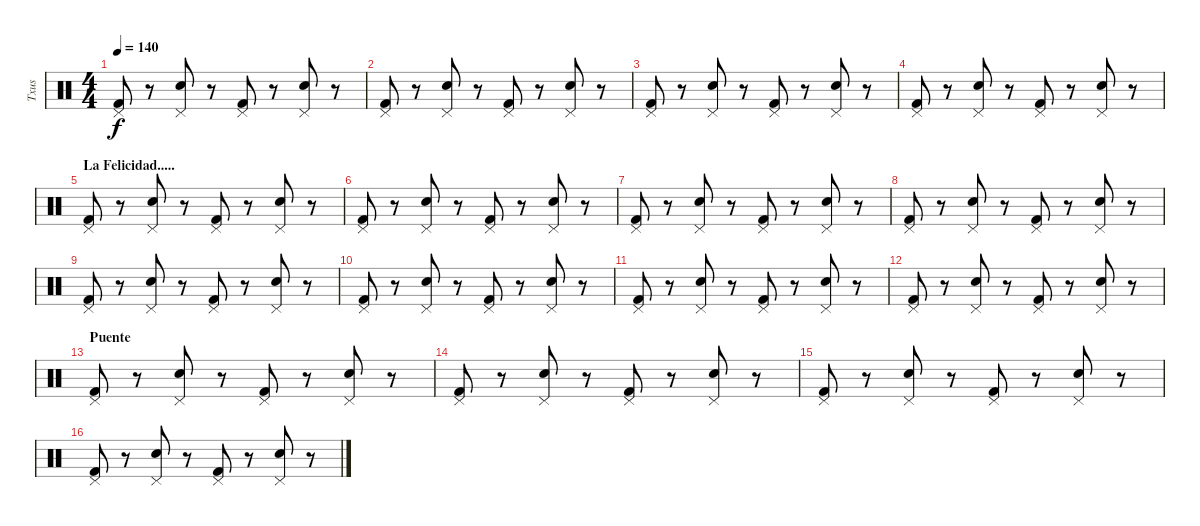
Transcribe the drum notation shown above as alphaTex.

\track ("Txus" "Txus") {instrument percussion}
\staff {score}
\articulation defaults
\ts (4 4)
\tempo 140
\clef neutral
\ks c
("Pedal Hi-Hat (hit)" "Kick (hit) 2").8{dy f} r.8 ("Pedal Hi-Hat (hit)" "Snare (hit) 2").8 r.8 ("Pedal Hi-Hat (hit)" "Kick (hit) 2").8 r.8 ("Pedal Hi-Hat (hit)" "Snare (hit) 2").8 r.8 |
("Pedal Hi-Hat (hit)" "Kick (hit) 2").8 r.8 ("Pedal Hi-Hat (hit)" "Snare (hit) 2").8 r.8 ("Pedal Hi-Hat (hit)" "Kick (hit) 2").8 r.8 ("Pedal Hi-Hat (hit)" "Snare (hit) 2").8 r.8 |
("Pedal Hi-Hat (hit)" "Kick (hit) 2").8 r.8 ("Pedal Hi-Hat (hit)" "Snare (hit) 2").8 r.8 ("Pedal Hi-Hat (hit)" "Kick (hit) 2").8 r.8 ("Pedal Hi-Hat (hit)" "Snare (hit) 2").8 r.8 |
("Pedal Hi-Hat (hit)" "Kick (hit) 2").8 r.8 ("Pedal Hi-Hat (hit)" "Snare (hit) 2").8 r.8 ("Pedal Hi-Hat (hit)" "Kick (hit) 2").8 r.8 ("Pedal Hi-Hat (hit)" "Snare (hit) 2").8 r.8 |
\section ("" "La Felicidad.....")
("Pedal Hi-Hat (hit)" "Kick (hit) 2").8 r.8 ("Pedal Hi-Hat (hit)" "Snare (hit) 2").8 r.8 ("Pedal Hi-Hat (hit)" "Kick (hit) 2").8 r.8 ("Pedal Hi-Hat (hit)" "Snare (hit) 2").8 r.8 |
("Pedal Hi-Hat (hit)" "Kick (hit) 2").8 r.8 ("Pedal Hi-Hat (hit)" "Snare (hit) 2").8 r.8 ("Pedal Hi-Hat (hit)" "Kick (hit) 2").8 r.8 ("Pedal Hi-Hat (hit)" "Snare (hit) 2").8 r.8 |
("Pedal Hi-Hat (hit)" "Kick (hit) 2").8 r.8 ("Pedal Hi-Hat (hit)" "Snare (hit) 2").8 r.8 ("Pedal Hi-Hat (hit)" "Kick (hit) 2").8 r.8 ("Pedal Hi-Hat (hit)" "Snare (hit) 2").8 r.8 |
("Pedal Hi-Hat (hit)" "Kick (hit) 2").8 r.8 ("Pedal Hi-Hat (hit)" "Snare (hit) 2").8 r.8 ("Pedal Hi-Hat (hit)" "Kick (hit) 2").8 r.8 ("Pedal Hi-Hat (hit)" "Snare (hit) 2").8 r.8 |
("Pedal Hi-Hat (hit)" "Kick (hit) 2").8 r.8 ("Pedal Hi-Hat (hit)" "Snare (hit) 2").8 r.8 ("Pedal Hi-Hat (hit)" "Kick (hit) 2").8 r.8 ("Pedal Hi-Hat (hit)" "Snare (hit) 2").8 r.8 |
("Pedal Hi-Hat (hit)" "Kick (hit) 2").8 r.8 ("Pedal Hi-Hat (hit)" "Snare (hit) 2").8 r.8 ("Pedal Hi-Hat (hit)" "Kick (hit) 2").8 r.8 ("Pedal Hi-Hat (hit)" "Snare (hit) 2").8 r.8 |
("Pedal Hi-Hat (hit)" "Kick (hit) 2").8 r.8 ("Pedal Hi-Hat (hit)" "Snare (hit) 2").8 r.8 ("Pedal Hi-Hat (hit)" "Kick (hit) 2").8 r.8 ("Pedal Hi-Hat (hit)" "Snare (hit) 2").8 r.8 |
("Pedal Hi-Hat (hit)" "Kick (hit) 2").8 r.8 ("Pedal Hi-Hat (hit)" "Snare (hit) 2").8 r.8 ("Pedal Hi-Hat (hit)" "Kick (hit) 2").8 r.8 ("Pedal Hi-Hat (hit)" "Snare (hit) 2").8 r.8 |
\section ("" "Puente")
("Pedal Hi-Hat (hit)" "Kick (hit) 2").8 r.8 ("Pedal Hi-Hat (hit)" "Snare (hit) 2").8 r.8 ("Pedal Hi-Hat (hit)" "Kick (hit) 2").8 r.8 ("Pedal Hi-Hat (hit)" "Snare (hit) 2").8 r.8 |
("Pedal Hi-Hat (hit)" "Kick (hit) 2").8 r.8 ("Pedal Hi-Hat (hit)" "Snare (hit) 2").8 r.8 ("Pedal Hi-Hat (hit)" "Kick (hit) 2").8 r.8 ("Pedal Hi-Hat (hit)" "Snare (hit) 2").8 r.8 |
("Pedal Hi-Hat (hit)" "Kick (hit) 2").8 r.8 ("Pedal Hi-Hat (hit)" "Snare (hit) 2").8 r.8 ("Pedal Hi-Hat (hit)" "Kick (hit) 2").8 r.8 ("Pedal Hi-Hat (hit)" "Snare (hit) 2").8 r.8 |
("Pedal Hi-Hat (hit)" "Kick (hit) 2").8 r.8 ("Pedal Hi-Hat (hit)" "Snare (hit) 2").8 r.8 ("Pedal Hi-Hat (hit)" "Kick (hit) 2").8 r.8 ("Pedal Hi-Hat (hit)" "Snare (hit) 2").8 r.8
